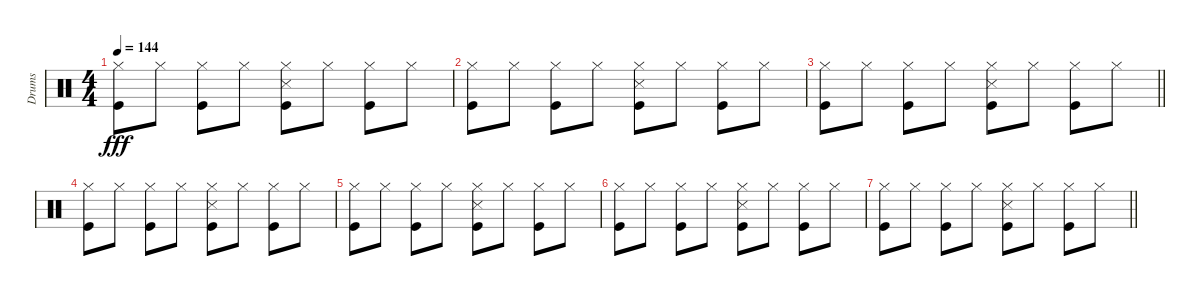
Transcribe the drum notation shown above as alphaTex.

\track ("Drums" "Drums") {instrument percussion}
\staff {score}
\articulation defaults
\ts (4 4)
\tempo 144
\clef neutral
\ks c
("Hi-Hat (closed)" "Kick (hit)").8{dy fff} "Hi-Hat (closed)".8 ("Hi-Hat (closed)" "Kick (hit)").8 "Hi-Hat (closed)".8 ("Kick (hit)" "Hi-Hat (closed)" "Snare (side stick) 3").8 "Hi-Hat (closed)".8 ("Hi-Hat (closed)" "Kick (hit)").8 "Hi-Hat (closed)".8 |
("Hi-Hat (closed)" "Kick (hit)").8 "Hi-Hat (closed)".8 ("Hi-Hat (closed)" "Kick (hit)").8 "Hi-Hat (closed)".8 ("Hi-Hat (closed)" "Kick (hit)" "Snare (side stick) 3").8 "Hi-Hat (closed)".8 ("Hi-Hat (closed)" "Kick (hit)").8 "Hi-Hat (closed)".8 |
\barLineRight lightlight
("Hi-Hat (closed)" "Kick (hit)").8 "Hi-Hat (closed)".8 ("Hi-Hat (closed)" "Kick (hit)").8 "Hi-Hat (closed)".8 ("Hi-Hat (closed)" "Kick (hit)" "Snare (side stick) 3").8 "Hi-Hat (closed)".8 ("Hi-Hat (closed)" "Kick (hit)").8 "Hi-Hat (closed)".8 |
("Hi-Hat (closed)" "Kick (hit)").8{volume 0} "Hi-Hat (closed)".8 ("Hi-Hat (closed)" "Kick (hit)").8 "Hi-Hat (closed)".8 ("Hi-Hat (closed)" "Kick (hit)" "Snare (side stick) 3").8 "Hi-Hat (closed)".8 ("Hi-Hat (closed)" "Kick (hit)").8 "Hi-Hat (closed)".8 |
("Hi-Hat (closed)" "Kick (hit)").8 "Hi-Hat (closed)".8 ("Hi-Hat (closed)" "Kick (hit)").8 "Hi-Hat (closed)".8 ("Kick (hit)" "Hi-Hat (closed)" "Snare (side stick) 3").8 "Hi-Hat (closed)".8 ("Hi-Hat (closed)" "Kick (hit)").8 "Hi-Hat (closed)".8 |
("Hi-Hat (closed)" "Kick (hit)").8 "Hi-Hat (closed)".8 ("Hi-Hat (closed)" "Kick (hit)").8 "Hi-Hat (closed)".8 ("Hi-Hat (closed)" "Kick (hit)" "Snare (side stick) 3").8 "Hi-Hat (closed)".8 ("Hi-Hat (closed)" "Kick (hit)").8 "Hi-Hat (closed)".8 |
\barLineRight lightlight
("Hi-Hat (closed)" "Kick (hit)").8 "Hi-Hat (closed)".8 ("Hi-Hat (closed)" "Kick (hit)").8 "Hi-Hat (closed)".8 ("Hi-Hat (closed)" "Kick (hit)" "Snare (side stick) 3").8 "Hi-Hat (closed)".8 ("Hi-Hat (closed)" "Kick (hit)").8 "Hi-Hat (closed)".8
